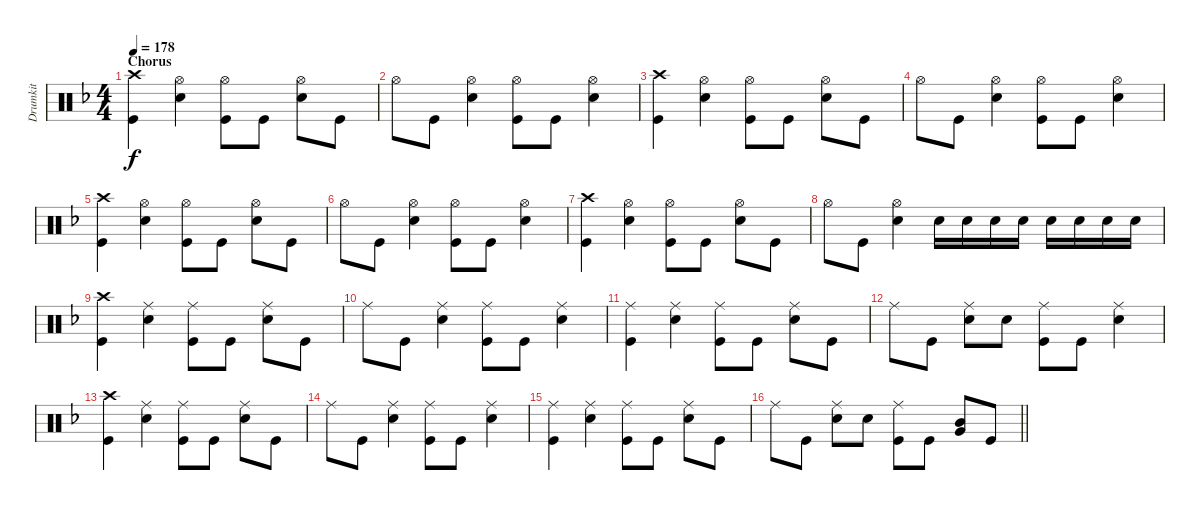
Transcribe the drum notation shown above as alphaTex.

\track ("Drumkit" "Drumkit") {instrument percussion}
\staff {score}
\articulation defaults
\ts (4 4)
\section ("" "Chorus")
\tempo 178
\clef neutral
\ks f
("Crash high (hit)" "Kick (hit)").4{dy f} ("Hi-Hat (open)" "Snare (hit) 2").4 ("Hi-Hat (open)" "Kick (hit)").8 "Kick (hit)".8 ("Hi-Hat (open)" "Snare (hit) 2").8 "Kick (hit)".8 |
"Hi-Hat (open)".8 "Kick (hit)".8 ("Hi-Hat (open)" "Snare (hit) 2").4 ("Hi-Hat (open)" "Kick (hit)").8 "Kick (hit)".8 ("Hi-Hat (open)" "Snare (hit) 2").4 |
("Crash high (hit)" "Kick (hit)").4 ("Hi-Hat (open)" "Snare (hit) 2").4 ("Hi-Hat (open)" "Kick (hit)").8 "Kick (hit)".8 ("Hi-Hat (open)" "Snare (hit) 2").8 "Kick (hit)".8 |
"Hi-Hat (open)".8 "Kick (hit)".8 ("Hi-Hat (open)" "Snare (hit) 2").4 ("Hi-Hat (open)" "Kick (hit)").8 "Kick (hit)".8 ("Hi-Hat (open)" "Snare (hit) 2").4 |
("Crash high (hit)" "Kick (hit)").4 ("Hi-Hat (open)" "Snare (hit) 2").4 ("Hi-Hat (open)" "Kick (hit)").8 "Kick (hit)".8 ("Hi-Hat (open)" "Snare (hit) 2").8 "Kick (hit)".8 |
"Hi-Hat (open)".8 "Kick (hit)".8 ("Hi-Hat (open)" "Snare (hit) 2").4 ("Hi-Hat (open)" "Kick (hit)").8 "Kick (hit)".8 ("Hi-Hat (open)" "Snare (hit) 2").4 |
("Crash high (hit)" "Kick (hit)").4 ("Hi-Hat (open)" "Snare (hit) 2").4 ("Hi-Hat (open)" "Kick (hit)").8 "Kick (hit)".8 ("Hi-Hat (open)" "Snare (hit) 2").8 "Kick (hit)".8 |
"Hi-Hat (open)".8 "Kick (hit)".8 ("Hi-Hat (open)" "Snare (hit) 2").4 "Snare (hit) 2".16 "Snare (hit) 2".16 "Snare (hit) 2".16 "Snare (hit) 2".16 "Snare (hit) 2".16 "Snare (hit) 2".16 "Snare (hit) 2".16 "Snare (hit) 2".16 |
("Crash high (hit)" "Kick (hit)").4 ("Ride (middle)" "Snare (hit) 2").4 ("Ride (middle)" "Kick (hit)").8 "Kick (hit)".8 ("Ride (middle)" "Snare (hit) 2").8 "Kick (hit)".8 |
"Ride (middle)".8 "Kick (hit)".8 ("Ride (middle)" "Snare (hit) 2").4 ("Ride (middle)" "Kick (hit)").8 "Kick (hit)".8 ("Ride (middle)" "Snare (hit) 2").4 |
("Ride (middle)" "Kick (hit)").4 ("Ride (middle)" "Snare (hit) 2").4 ("Ride (middle)" "Kick (hit)").8 "Kick (hit)".8 ("Ride (middle)" "Snare (hit) 2").8 "Kick (hit)".8 |
"Ride (middle)".8 "Kick (hit)".8 ("Ride (middle)" "Snare (hit) 2").8 "Snare (hit) 2".8 ("Ride (middle)" "Kick (hit)").8 "Kick (hit)".8 ("Ride (middle)" "Snare (hit) 2").4 |
("Crash high (hit)" "Kick (hit)").4 ("Ride (middle)" "Snare (hit) 2").4 ("Ride (middle)" "Kick (hit)").8 "Kick (hit)".8 ("Ride (middle)" "Snare (hit) 2").8 "Kick (hit)".8 |
"Ride (middle)".8 "Kick (hit)".8 ("Ride (middle)" "Snare (hit) 2").4 ("Ride (middle)" "Kick (hit)").8 "Kick (hit)".8 ("Ride (middle)" "Snare (hit) 2").4 |
("Ride (middle)" "Kick (hit)").4 ("Ride (middle)" "Snare (hit) 2").4 ("Ride (middle)" "Kick (hit)").8 "Kick (hit)".8 ("Ride (middle)" "Snare (hit) 2").8 "Kick (hit)".8 |
\barLineRight lightlight "Ride (middle)".8 "Kick (hit)".8
("Ride (middle)" "Snare (hit) 2").8 "Snare (hit) 2".8 ("Ride (middle)" "Kick (hit)").8 "Kick (hit)".8 ("Mid Tom (hit)" "Very Low Tom (hit)").8 "Kick (hit)".8
